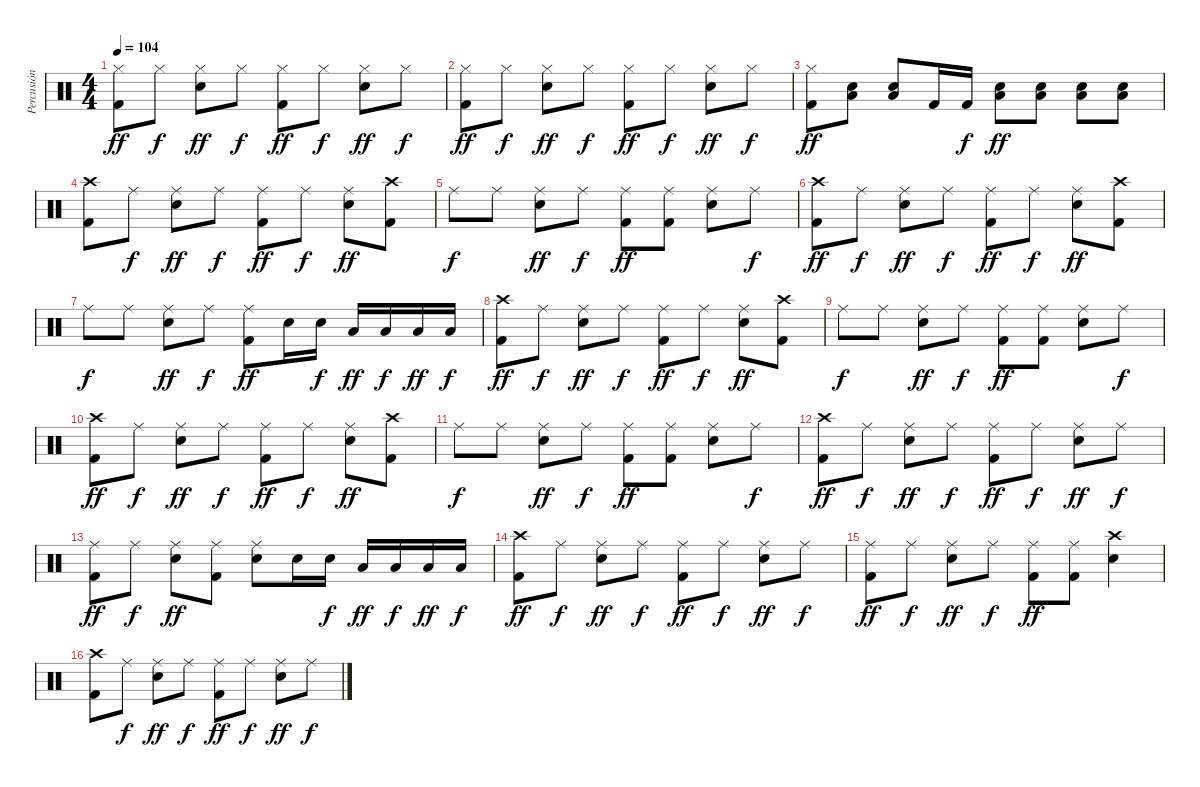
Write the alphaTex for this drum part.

\track ("Percusión" "Percusión") {instrument percussion}
\staff {score}
\articulation defaults
\ts (4 4)
\tempo 104
\clef neutral
\ks c
("Hi-Hat (closed)" "Kick (hit) 2").8{dy ff} "Hi-Hat (closed)".8{dy f} ("Hi-Hat (closed)" "Snare (hit) 2").8{dy ff} "Hi-Hat (closed)".8{dy f} ("Hi-Hat (closed)" "Kick (hit) 2").8{dy ff} "Hi-Hat (closed)".8{dy f} ("Hi-Hat (closed)" "Snare (hit) 2").8{dy ff} "Hi-Hat (closed)".8{dy f} |
("Hi-Hat (closed)" "Kick (hit) 2").8{dy ff} "Hi-Hat (closed)".8{dy f} ("Hi-Hat (closed)" "Snare (hit) 2").8{dy ff} "Hi-Hat (closed)".8{dy f} ("Hi-Hat (closed)" "Kick (hit) 2").8{dy ff} "Hi-Hat (closed)".8{dy f} ("Hi-Hat (closed)" "Snare (hit) 2").8{dy ff} "Hi-Hat (closed)".8{dy f} |
("Hi-Hat (closed)" "Kick (hit) 2").8{dy ff} ("Low Tom (hit)" "Snare (hit) 2").8 ("Low Tom (hit)" "Snare (hit) 2").8 "Kick (hit) 2".16 "Kick (hit) 2".16{dy f} ("Low Floor Tom (hit)" "Snare (hit) 2").8{dy ff} ("Low Floor Tom (hit)" "Snare (hit) 2").8 ("Low Floor Tom (hit)" "Snare (hit) 2").8 ("Low Floor Tom (hit)" "Snare (hit) 2").8 |
("Crash high (hit)" "Kick (hit) 2").8 "Ride (middle)".8{dy f} ("Ride (middle)" "Snare (hit) 2").8{dy ff} "Ride (middle)".8{dy f} ("Ride (middle)" "Kick (hit) 2").8{dy ff} "Ride (middle)".8{dy f} ("Ride (middle)" "Snare (hit) 2").8{dy ff} ("Crash high (hit)" "Kick (hit) 2").8 |
"Ride (middle)".8{dy f} "Ride (middle)".8 ("Ride (middle)" "Snare (hit) 2").8{dy ff} "Ride (middle)".8{dy f} ("Ride (middle)" "Kick (hit) 2").8{dy ff} ("Ride (middle)" "Kick (hit) 2").8 ("Ride (middle)" "Snare (hit) 2").8 "Ride (middle)".8{dy f} |
("Crash high (hit)" "Kick (hit) 2").8{dy ff} "Ride (middle)".8{dy f} ("Ride (middle)" "Snare (hit) 2").8{dy ff} "Ride (middle)".8{dy f} ("Ride (middle)" "Kick (hit) 2").8{dy ff} "Ride (middle)".8{dy f} ("Ride (middle)" "Snare (hit) 2").8{dy ff} ("Crash high (hit)" "Kick (hit) 2").8 |
"Ride (middle)".8{dy f} "Ride (middle)".8 ("Ride (middle)" "Snare (hit) 2").8{dy ff} "Ride (middle)".8{dy f} ("Ride (middle)" "Kick (hit) 2").8{dy ff} "Snare (hit) 2".16 "Snare (hit) 2".16{dy f} "Low Tom (hit)".16{dy ff} "Low Tom (hit)".16{dy f} "Low Floor Tom (hit)".16{dy ff} "Low Floor Tom (hit)".16{dy f} |
("Crash high (hit)" "Kick (hit) 2").8{dy ff} "Ride (middle)".8{dy f} ("Ride (middle)" "Snare (hit) 2").8{dy ff} "Ride (middle)".8{dy f} ("Ride (middle)" "Kick (hit) 2").8{dy ff} "Ride (middle)".8{dy f} ("Ride (middle)" "Snare (hit) 2").8{dy ff} ("Crash high (hit)" "Kick (hit) 2").8 |
"Ride (middle)".8{dy f} "Ride (middle)".8 ("Ride (middle)" "Snare (hit) 2").8{dy ff} "Ride (middle)".8{dy f} ("Ride (middle)" "Kick (hit) 2").8{dy ff} ("Ride (middle)" "Kick (hit) 2").8 ("Ride (middle)" "Snare (hit) 2").8 "Ride (middle)".8{dy f} |
("Crash high (hit)" "Kick (hit) 2").8{dy ff} "Ride (middle)".8{dy f} ("Ride (middle)" "Snare (hit) 2").8{dy ff} "Ride (middle)".8{dy f} ("Ride (middle)" "Kick (hit) 2").8{dy ff} "Ride (middle)".8{dy f} ("Ride (middle)" "Snare (hit) 2").8{dy ff} ("Crash high (hit)" "Kick (hit) 2").8 |
"Ride (middle)".8{dy f} "Ride (middle)".8 ("Ride (middle)" "Snare (hit) 2").8{dy ff} "Ride (middle)".8{dy f} ("Ride (middle)" "Kick (hit) 2").8{dy ff} ("Ride (middle)" "Kick (hit) 2").8 ("Ride (middle)" "Snare (hit) 2").8 "Ride (middle)".8{dy f} |
("Crash high (hit)" "Kick (hit) 2").8{dy ff} "Ride (middle)".8{dy f} ("Ride (middle)" "Snare (hit) 2").8{dy ff} "Ride (middle)".8{dy f} ("Ride (middle)" "Kick (hit) 2").8{dy ff} "Ride (middle)".8{dy f} ("Ride (middle)" "Snare (hit) 2").8{dy ff} "Ride (middle)".8{dy f} |
("Ride (middle)" "Kick (hit) 2").8{dy ff} "Ride (middle)".8{dy f} ("Ride (middle)" "Snare (hit) 2").8{dy ff} ("Ride (middle)" "Kick (hit) 2").8 ("Ride (middle)" "Snare (hit) 2").8 "Snare (hit) 2".16 "Snare (hit) 2".16{dy f} "Low Tom (hit)".16{dy ff} "Low Tom (hit)".16{dy f} "Low Floor Tom (hit)".16{dy ff} "Low Floor Tom (hit)".16{dy f} |
("Crash high (hit)" "Kick (hit) 2").8{dy ff} "Ride (middle)".8{dy f} ("Ride (middle)" "Snare (hit) 2").8{dy ff} "Ride (middle)".8{dy f} ("Ride (middle)" "Kick (hit) 2").8{dy ff} "Ride (middle)".8{dy f} ("Ride (middle)" "Snare (hit) 2").8{dy ff} "Ride (middle)".8{dy f} |
("Ride (middle)" "Kick (hit) 2").8{dy ff} "Ride (middle)".8{dy f} ("Ride (middle)" "Snare (hit) 2").8{dy ff} "Ride (middle)".8{dy f} ("Ride (middle)" "Kick (hit) 2").8{dy ff} ("Ride (middle)" "Kick (hit) 2").8 ("Crash high (hit)" "Snare (hit) 2").4 |
("Crash high (hit)" "Kick (hit) 2").8 "Ride (middle)".8{dy f} ("Ride (middle)" "Snare (hit) 2").8{dy ff} "Ride (middle)".8{dy f} ("Ride (middle)" "Kick (hit) 2").8{dy ff} "Ride (middle)".8{dy f} ("Ride (middle)" "Snare (hit) 2").8{dy ff} "Ride (middle)".8{dy f}
